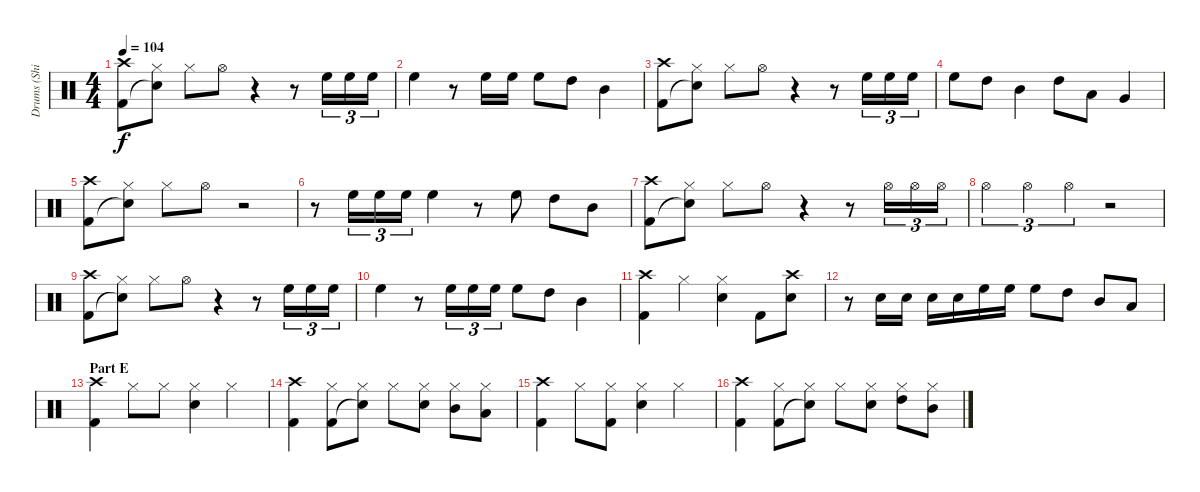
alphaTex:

\track ("Drums (Shinya)" "Drums (Shi") {instrument percussion}
\staff {score}
\articulation defaults
\ts (4 4)
\tempo 104
\clef neutral
\ks c
("Crash high (hit)" "Kick (hit) 2").8{dy f} ("Hi-Hat (closed)" "Snare (hit)"{t}).8 "Hi-Hat (closed)".8 "Hi-Hat (open)".8 r.4 r.8 "High Floor Tom (hit)".16{tu (3 2)} "High Floor Tom (hit)".16{tu (3 2)} "High Floor Tom (hit)".16{tu (3 2)} |
"High Floor Tom (hit)".4 r.8 "High Floor Tom (hit)".16 "High Floor Tom (hit)".16 "High Floor Tom (hit)".8 "High Tom (hit)".8 "Mid Tom (hit)".4 |
("Crash high (hit)" "Kick (hit) 2").8 ("Hi-Hat (closed)" "Snare (hit)"{t}).8 "Hi-Hat (closed)".8 "Hi-Hat (open)".8 r.4 r.8 "High Floor Tom (hit)".16{tu (3 2)} "High Floor Tom (hit)".16{tu (3 2)} "High Floor Tom (hit)".16{tu (3 2)} |
"High Floor Tom (hit)".8 "High Tom (hit)".8 "Mid Tom (hit)".4 "High Tom (hit)".8 "Low Tom (hit)".8 "Very Low Tom (hit)".4 |
("Crash high (hit)" "Kick (hit) 2").8 ("Hi-Hat (closed)" "Snare (hit)"{t}).8 "Hi-Hat (closed)".8 "Hi-Hat (open)".8 r.2 |
r.8 "High Floor Tom (hit)".16{tu (3 2)} "High Floor Tom (hit)".16{tu (3 2)} "High Floor Tom (hit)".16{tu (3 2)} "High Floor Tom (hit)".4 r.8 "High Floor Tom (hit)".8 "High Tom (hit)".8 "Mid Tom (hit)".8 |
("Crash high (hit)" "Kick (hit) 2").8 ("Hi-Hat (closed)" "Snare (hit)"{t}).8 "Hi-Hat (closed)".8 "Hi-Hat (open)".8 r.4 r.8 "Hi-Hat (open)".16{tu (3 2)} "Hi-Hat (open)".16{tu (3 2)} "Hi-Hat (open)".16{tu (3 2)} |
"Hi-Hat (open)".4{tu (3 2)} "Hi-Hat (open)".4{tu (3 2)} "Hi-Hat (open)".4{tu (3 2)} r.2 |
("Crash high (hit)" "Kick (hit) 2").8 ("Hi-Hat (closed)" "Snare (hit)"{t}).8 "Hi-Hat (closed)".8 "Hi-Hat (open)".8 r.4 r.8 "High Floor Tom (hit)".16{tu (3 2)} "High Floor Tom (hit)".16{tu (3 2)} "High Floor Tom (hit)".16{tu (3 2)} |
"High Floor Tom (hit)".4 r.8 "High Floor Tom (hit)".16{tu (3 2)} "High Floor Tom (hit)".16{tu (3 2)} "High Floor Tom (hit)".16{tu (3 2)} "High Floor Tom (hit)".8 "High Tom (hit)".8 "Mid Tom (hit)".4 |
("Crash high (hit)" "Kick (hit) 2").4 "Hi-Hat (closed)".4 ("Hi-Hat (closed)" "Electric Snare (hit)").4 "Kick (hit) 2".8 ("Crash high (hit)" "Electric Snare (hit)").8 |
r.8 "Electric Snare (hit)".16 "Electric Snare (hit)".16 "Electric Snare (hit)".16 "Electric Snare (hit)".16 "High Floor Tom (hit)".16 "High Floor Tom (hit)".16 "High Floor Tom (hit)".8 "High Tom (hit)".8 "Mid Tom (hit)".8 "Low Tom (hit)".8 |
\section ("" "Part E")
("Crash high (hit)" "Kick (hit) 2").4 "Hi-Hat (closed)".8 "Hi-Hat (closed)".8 ("Hi-Hat (closed)" "Electric Snare (hit)").4 "Hi-Hat (closed)".4 |
("Crash high (hit)" "Kick (hit) 2").4 ("Hi-Hat (closed)" "Kick (hit) 2").8 ("Hi-Hat (closed)" "Snare (hit)"{t}).8 "Hi-Hat (closed)".8 ("Hi-Hat (closed)" "Electric Snare (hit)").8 ("Hi-Hat (closed)" "Mid Tom (hit)").8 ("Hi-Hat (closed)" "Low Tom (hit)").8 |
("Crash high (hit)" "Kick (hit) 2").4 "Hi-Hat (closed)".8 ("Hi-Hat (closed)" "Kick (hit) 2").8 ("Hi-Hat (closed)" "Electric Snare (hit)").4 "Hi-Hat (closed)".4 |
("Crash high (hit)" "Kick (hit) 2").4 ("Hi-Hat (closed)" "Kick (hit) 2").8 ("Hi-Hat (closed)" "Snare (hit)"{t}).8 "Hi-Hat (closed)".8 ("Hi-Hat (closed)" "Electric Snare (hit)").8 ("Hi-Hat (closed)" "High Tom (hit)").8 ("Hi-Hat (closed)" "Mid Tom (hit)").8
